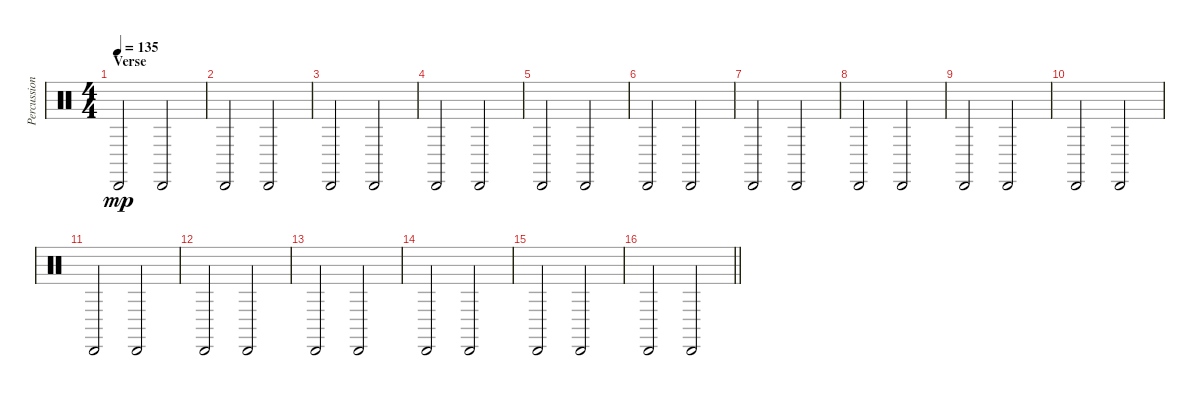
\track ("Percussion" "Percussion") {instrument percussion}
\staff {score}
\articulation defaults
\ts (4 4)
\section ("" "Verse")
\tempo 135
\clef neutral
\ks c "Cabasa (hit)".2{dy mp} "Cabasa (hit)".2
|
"Cabasa (hit)".2 "Cabasa (hit)".2 |
"Cabasa (hit)".2 "Cabasa (hit)".2 |
"Cabasa (hit)".2 "Cabasa (hit)".2 |
"Cabasa (hit)".2 "Cabasa (hit)".2 |
"Cabasa (hit)".2 "Cabasa (hit)".2 |
"Cabasa (hit)".2 "Cabasa (hit)".2 |
"Cabasa (hit)".2 "Cabasa (hit)".2 |
"Cabasa (hit)".2 "Cabasa (hit)".2 |
"Cabasa (hit)".2 "Cabasa (hit)".2 |
"Cabasa (hit)".2 "Cabasa (hit)".2 |
"Cabasa (hit)".2 "Cabasa (hit)".2 |
"Cabasa (hit)".2 "Cabasa (hit)".2 |
"Cabasa (hit)".2 "Cabasa (hit)".2 |
"Cabasa (hit)".2 "Cabasa (hit)".2 |
\barLineRight lightlight "Cabasa (hit)".2 "Cabasa (hit)".2
